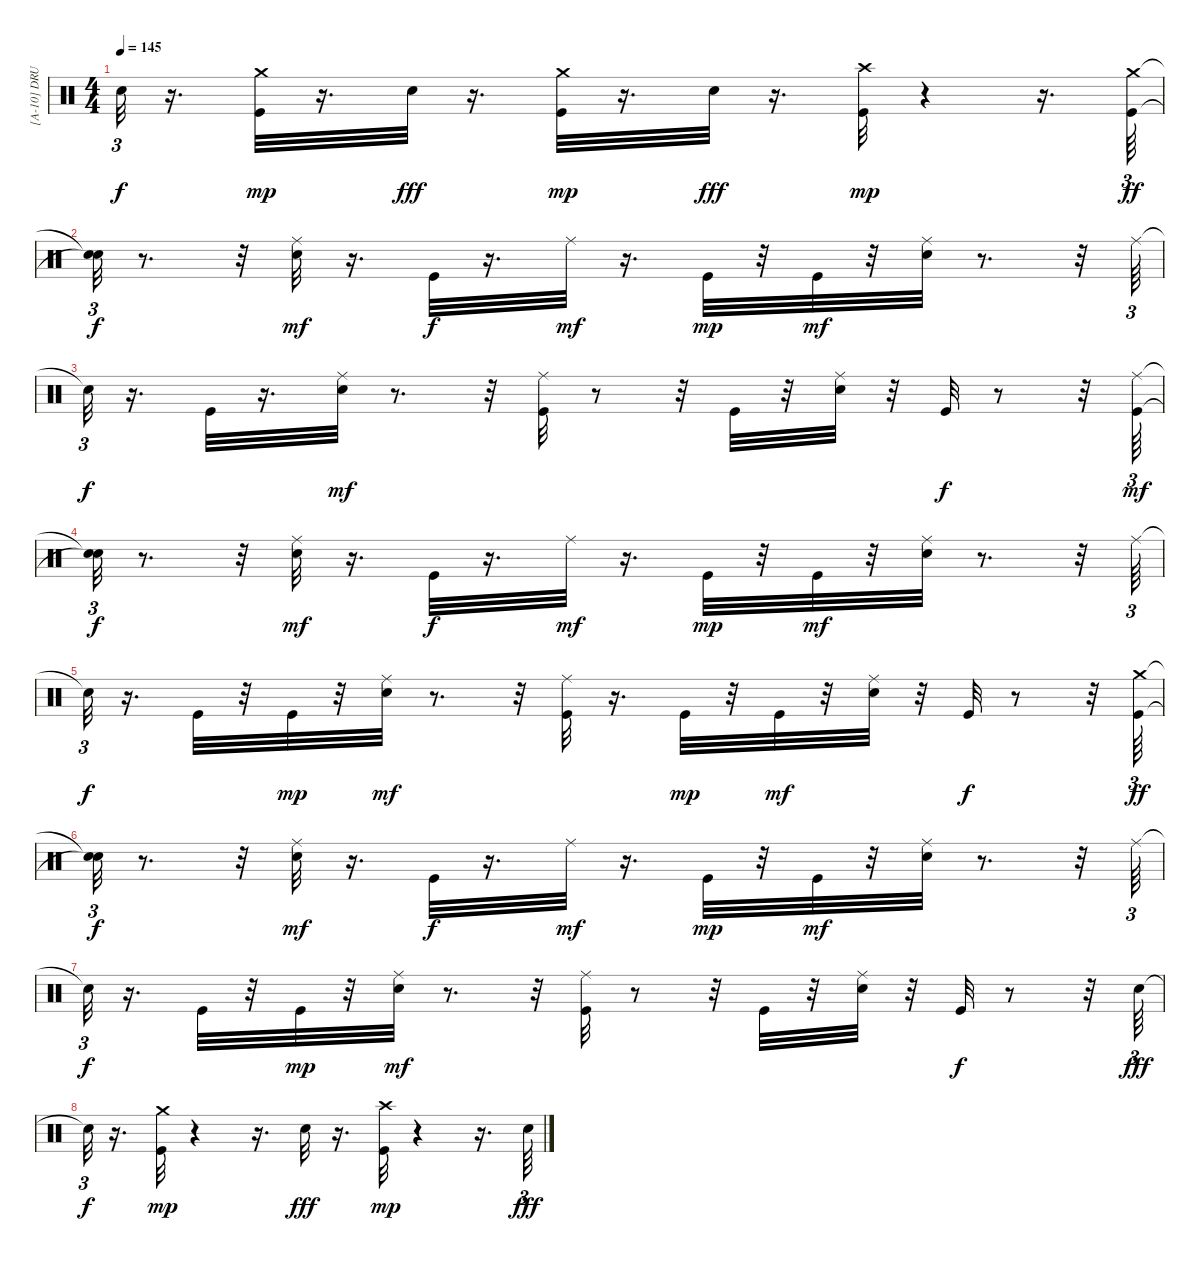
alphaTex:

\track ("[A-10] DRUMS" "[A-10] DRU") {instrument percussion}
\staff {score}
\articulation defaults
\ts (4 4)
\tempo 145
\clef neutral
\ks c "Snare (hit)"{t}.32{tu (3 2) dy f}
r.16{d} ("Kick (hit)" "Crash medium (hit)").32{dy mp} r.16{d} "Snare (hit) 2".32{dy fff} r.16{d} ("Kick (hit)" "Crash medium (hit)").32{dy mp} r.16{d} "Snare (hit) 2".32{dy fff} r.16{d} ("Kick (hit)" "Crash high (hit)").32{dy mp} r.4 r.16{d} ("Crash medium (hit)" "Kick (hit)").64{tu (3 2) dy ff} |
("Snare (hit)"{t} "Snare (hit)"{t}).32{tu (3 2) dy f} r.8{d} r.32 ("Snare (hit) 2" "Ride (middle)").32{dy mf} r.16{d} "Kick (hit)".32{dy f} r.16{d} "Ride (middle)".32{dy mf} r.16{d} "Kick (hit)".32{dy mp} r.32 "Kick (hit)".32{dy mf} r.32 ("Snare (hit) 2" "Ride (middle)").32 r.8{d} r.32 "Ride (middle)".64{tu (3 2)} |
"Snare (hit)"{t}.32{tu (3 2) dy f} r.16{d} "Kick (hit)".32 r.16{d} ("Snare (hit) 2" "Ride (middle)").32{dy mf} r.8{d} r.32 ("Kick (hit)" "Ride (middle)").32 r.8 r.32 "Kick (hit)".32 r.32 ("Snare (hit) 2" "Ride (middle)").32 r.32 "Kick (hit)".32{dy f} r.8 r.32 ("Kick (hit)" "Ride (middle)").64{tu (3 2) dy mf} |
("Snare (hit)"{t} "Snare (hit)"{t}).32{tu (3 2) dy f} r.8{d} r.32 ("Snare (hit) 2" "Ride (middle)").32{dy mf} r.16{d} "Kick (hit)".32{dy f} r.16{d} "Ride (middle)".32{dy mf} r.16{d} "Kick (hit)".32{dy mp} r.32 "Kick (hit)".32{dy mf} r.32 ("Snare (hit) 2" "Ride (middle)").32 r.8{d} r.32 "Ride (middle)".64{tu (3 2)} |
"Snare (hit)"{t}.32{tu (3 2) dy f} r.16{d} "Kick (hit)".32 r.32 "Kick (hit)".32{dy mp} r.32 ("Snare (hit) 2" "Ride (middle)").32{dy mf} r.8{d} r.32 ("Kick (hit)" "Ride (middle)").32 r.16{d} "Kick (hit)".32{dy mp} r.32 "Kick (hit)".32{dy mf} r.32 ("Snare (hit) 2" "Ride (middle)").32 r.32 "Kick (hit)".32{dy f} r.8 r.32 ("Crash medium (hit)" "Kick (hit)").64{tu (3 2) dy ff} |
("Snare (hit)"{t} "Snare (hit)"{t}).32{tu (3 2) dy f} r.8{d} r.32 ("Snare (hit) 2" "Ride (middle)").32{dy mf} r.16{d} "Kick (hit)".32{dy f} r.16{d} "Ride (middle)".32{dy mf} r.16{d} "Kick (hit)".32{dy mp} r.32 "Kick (hit)".32{dy mf} r.32 ("Snare (hit) 2" "Ride (middle)").32 r.8{d} r.32 "Ride (middle)".64{tu (3 2)} |
"Snare (hit)"{t}.32{tu (3 2) dy f} r.16{d} "Kick (hit)".32 r.32 "Kick (hit)".32{dy mp} r.32 ("Snare (hit) 2" "Ride (middle)").32{dy mf} r.8{d} r.32 ("Kick (hit)" "Ride (middle)").32 r.8 r.32 "Kick (hit)".32 r.32 ("Snare (hit) 2" "Ride (middle)").32 r.32 "Kick (hit)".32{dy f} r.8 r.32 "Snare (hit) 2".64{tu (3 2) dy fff} |
"Snare (hit)"{t}.32{tu (3 2) dy f} r.16{d} ("Kick (hit)" "Crash medium (hit)").32{dy mp} r.4 r.16{d} "Snare (hit) 2".32{dy fff} r.16{d} ("Kick (hit)" "Crash high (hit)").32{dy mp} r.4 r.16{d} "Snare (hit) 2".64{tu (3 2) dy fff}
